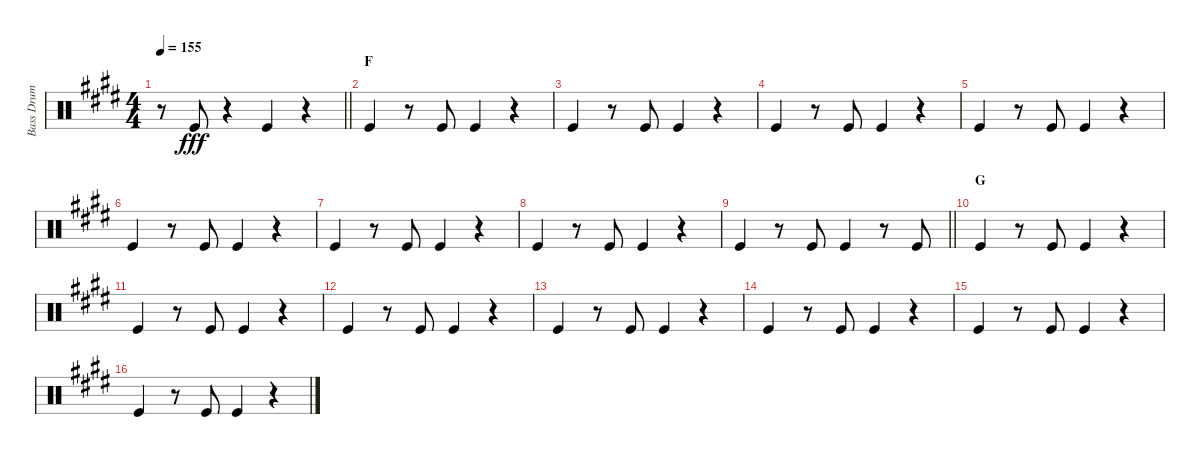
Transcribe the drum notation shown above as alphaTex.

\track ("Bass Drum" "Bass Drum") {instrument percussion}
\staff {score}
\articulation defaults
\ts (4 4)
\tempo 155
\clef neutral
\barLineRight lightlight
\ks e
r.8{dy fff} "Kick (hit)".8 r.4 "Kick (hit)".4 r.4 |
\section ("" "F")
"Kick (hit)".4 r.8 "Kick (hit)".8 "Kick (hit)".4 r.4 |
"Kick (hit)".4 r.8 "Kick (hit)".8 "Kick (hit)".4 r.4 |
"Kick (hit)".4 r.8 "Kick (hit)".8 "Kick (hit)".4 r.4 |
"Kick (hit)".4 r.8 "Kick (hit)".8 "Kick (hit)".4 r.4 |
"Kick (hit)".4 r.8 "Kick (hit)".8 "Kick (hit)".4 r.4 |
"Kick (hit)".4 r.8 "Kick (hit)".8 "Kick (hit)".4 r.4 |
"Kick (hit)".4 r.8 "Kick (hit)".8 "Kick (hit)".4 r.4 |
\barLineRight lightlight "Kick (hit)".4
r.8 "Kick (hit)".8 "Kick (hit)".4 r.8 "Kick (hit)".8 |
\section ("" "G")
"Kick (hit)".4 r.8 "Kick (hit)".8 "Kick (hit)".4 r.4 |
"Kick (hit)".4 r.8 "Kick (hit)".8 "Kick (hit)".4 r.4 |
"Kick (hit)".4 r.8 "Kick (hit)".8 "Kick (hit)".4 r.4 |
"Kick (hit)".4 r.8 "Kick (hit)".8 "Kick (hit)".4 r.4 |
"Kick (hit)".4 r.8 "Kick (hit)".8 "Kick (hit)".4 r.4 |
"Kick (hit)".4 r.8 "Kick (hit)".8 "Kick (hit)".4 r.4 |
"Kick (hit)".4 r.8 "Kick (hit)".8 "Kick (hit)".4 r.4
